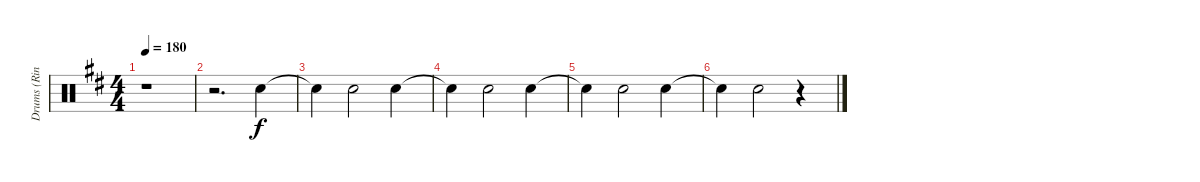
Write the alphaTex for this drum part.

\track ("Drums (Ringo)" "Drums (Rin") {instrument percussion}
\staff {score}
\articulation defaults
\ts (4 4)
\tempo 180
\clef neutral
\ks d
r.1{dy f} |
r.2{d} "Hand Clap (hit)".4{volume 2} |
"Snare (hit)"{t}.4 "Hand Clap (hit)".2 "Hand Clap (hit)".4 |
"Snare (hit)"{t}.4 "Hand Clap (hit)".2 "Hand Clap (hit)".4 |
"Snare (hit)"{t}.4 "Hand Clap (hit)".2 "Hand Clap (hit)".4 |
"Snare (hit)"{t}.4 "Hand Clap (hit)".2 r.4
